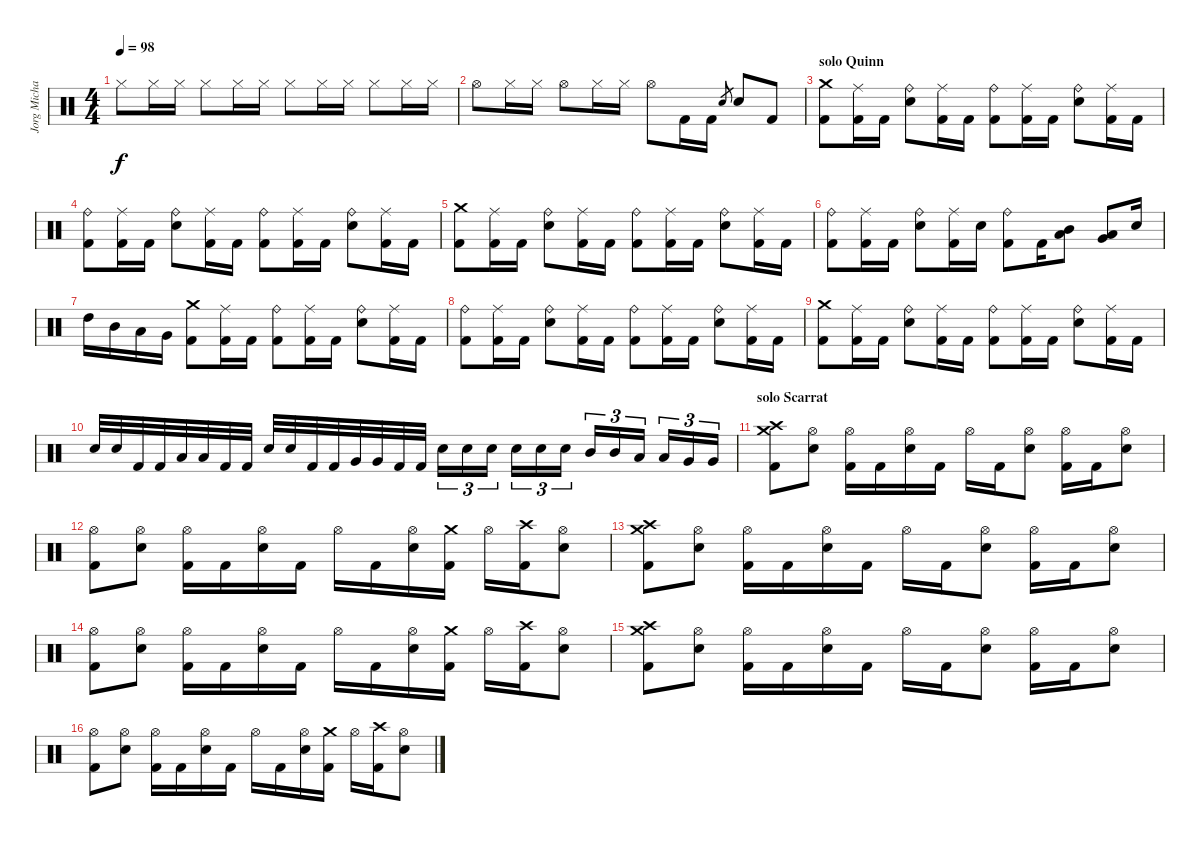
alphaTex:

\track ("Jorg Michael" "Jorg Micha") {instrument percussion}
\staff {score}
\articulation defaults
\ts (4 4)
\tempo 98
\clef neutral
\ks c "Hi-Hat (closed)".8{dy f} "Hi-Hat (closed)".16 "Hi-Hat (closed)".16 "Hi-Hat (closed)".8 "Hi-Hat (closed)".16 "Hi-Hat (closed)".16 "Hi-Hat (closed)".8 "Hi-Hat (closed)".16 "Hi-Hat (closed)".16 "Hi-Hat (closed)".8 "Hi-Hat (closed)".16 "Hi-Hat (closed)".16
|
"Hi-Hat (open)".8 "Hi-Hat (closed)".16 "Hi-Hat (closed)".16 "Hi-Hat (open)".8 "Hi-Hat (closed)".16 "Hi-Hat (closed)".16 "Hi-Hat (open)".8 "Kick (hit) 2".16 "Kick (hit) 2".16 "Electric Snare (hit)".8{gr} "Electric Snare (hit)".8 "Kick (hit) 2".8 |
\section ("" "solo Quinn")
("Crash medium (hit)" "Kick (hit) 2").8 ("Ride (middle)" "Kick (hit) 2").16 "Kick (hit) 2".16 ("Ride (bell)" "Electric Snare (hit)").8 ("Ride (middle)" "Kick (hit) 2").16 "Kick (hit) 2".16 ("Ride (bell)" "Kick (hit) 2").8 ("Ride (middle)" "Kick (hit) 2").16 "Kick (hit) 2".16 ("Ride (bell)" "Electric Snare (hit)").8 ("Ride (middle)" "Kick (hit) 2").16 "Kick (hit) 2".16 |
("Ride (bell)" "Kick (hit) 2").8 ("Ride (middle)" "Kick (hit) 2").16 "Kick (hit) 2".16 ("Ride (bell)" "Electric Snare (hit)").8 ("Ride (middle)" "Kick (hit) 2").16 "Kick (hit) 2".16 ("Ride (bell)" "Kick (hit) 2").8 ("Ride (middle)" "Kick (hit) 2").16 "Kick (hit) 2".16 ("Ride (bell)" "Electric Snare (hit)").8 ("Ride (middle)" "Kick (hit) 2").16 "Kick (hit) 2".16 |
("Crash medium (hit)" "Kick (hit) 2").8 ("Ride (middle)" "Kick (hit) 2").16 "Kick (hit) 2".16 ("Ride (bell)" "Electric Snare (hit)").8 ("Ride (middle)" "Kick (hit) 2").16 "Kick (hit) 2".16 ("Ride (bell)" "Kick (hit) 2").8 ("Ride (middle)" "Kick (hit) 2").16 "Kick (hit) 2".16 ("Ride (bell)" "Electric Snare (hit)").8 ("Ride (middle)" "Kick (hit) 2").16 "Kick (hit) 2".16 |
("Ride (bell)" "Kick (hit) 2").8 ("Ride (middle)" "Kick (hit) 2").16 "Kick (hit) 2".16 ("Ride (bell)" "Electric Snare (hit)").8 ("Ride (middle)" "Kick (hit) 2").16 "Electric Snare (hit)".16 ("Ride (bell)" "Kick (hit) 2").8 "Kick (hit) 2".16 ("Mid Tom (hit)" "Low Tom (hit)").8 ("Low Tom (hit)" "Very Low Tom (hit)").8 "Electric Snare (hit)".16 |
"High Tom (hit)".16 "Mid Tom (hit)".16 "Low Tom (hit)".16 "Very Low Tom (hit)".16 ("Crash medium (hit)" "Kick (hit) 2").8 ("Ride (middle)" "Kick (hit) 2").16 "Kick (hit) 2".16 ("Ride (bell)" "Kick (hit) 2").8 ("Ride (middle)" "Kick (hit) 2").16 "Kick (hit) 2".16 ("Ride (bell)" "Electric Snare (hit)").8 ("Ride (middle)" "Kick (hit) 2").16 "Kick (hit) 2".16 |
("Ride (bell)" "Kick (hit) 2").8 ("Ride (middle)" "Kick (hit) 2").16 "Kick (hit) 2".16 ("Ride (bell)" "Electric Snare (hit)").8 ("Ride (middle)" "Kick (hit) 2").16 "Kick (hit) 2".16 ("Ride (bell)" "Kick (hit) 2").8 ("Ride (middle)" "Kick (hit) 2").16 "Kick (hit) 2".16 ("Ride (bell)" "Electric Snare (hit)").8 ("Ride (middle)" "Kick (hit) 2").16 "Kick (hit) 2".16 |
("Crash medium (hit)" "Kick (hit) 2").8 ("Ride (middle)" "Kick (hit) 2").16 "Kick (hit) 2".16 ("Ride (bell)" "Electric Snare (hit)").8 ("Ride (middle)" "Kick (hit) 2").16 "Kick (hit) 2".16 ("Ride (bell)" "Kick (hit) 2").8 ("Ride (middle)" "Kick (hit) 2").16 "Kick (hit) 2".16 ("Ride (bell)" "Electric Snare (hit)").8 ("Ride (middle)" "Kick (hit) 2").16 "Kick (hit) 2".16 |
"Electric Snare (hit)".32 "Electric Snare (hit)".32 "Kick (hit) 2".32 "Kick (hit) 2".32 "Low Tom (hit)".32 "Low Tom (hit)".32 "Kick (hit) 2".32 "Kick (hit) 2".32 "Electric Snare (hit)".32 "Electric Snare (hit)".32 "Kick (hit) 2".32 "Kick (hit) 2".32 "Very Low Tom (hit)".32 "Very Low Tom (hit)".32 "Kick (hit) 2".32 "Kick (hit) 2".32 "Electric Snare (hit)".16{tu (3 2)} "Electric Snare (hit)".16{tu (3 2)} "Electric Snare (hit)".16{tu (3 2)} "Electric Snare (hit)".16{tu (3 2)} "Electric Snare (hit)".16{tu (3 2)} "Electric Snare (hit)".16{tu (3 2)} "Mid Tom (hit)".16{tu (3 2)} "Mid Tom (hit)".16{tu (3 2)} "Low Tom (hit)".16{tu (3 2)} "Low Tom (hit)".16{tu (3 2)} "Very Low Tom (hit)".16{tu (3 2)} "Very Low Tom (hit)".16{tu (3 2)} |
\section ("" "solo Scarrat")
("Crash medium (hit)" "Crash high (hit)" "Kick (hit) 2").8 ("Hi-Hat (open)" "Electric Snare (hit)").8 ("Hi-Hat (open)" "Kick (hit) 2").16 "Kick (hit) 2".16 ("Hi-Hat (open)" "Electric Snare (hit)").16 "Kick (hit) 2".16 "Hi-Hat (open)".16 "Kick (hit) 2".16 ("Hi-Hat (open)" "Electric Snare (hit)").8 ("Hi-Hat (open)" "Kick (hit) 2").16 "Kick (hit) 2".16 ("Hi-Hat (open)" "Electric Snare (hit)").8 |
("Hi-Hat (open)" "Kick (hit) 2").8 ("Hi-Hat (open)" "Electric Snare (hit)").8 ("Hi-Hat (open)" "Kick (hit) 2").16 "Kick (hit) 2".16 ("Hi-Hat (open)" "Electric Snare (hit)").16 "Kick (hit) 2".16 "Hi-Hat (open)".16 "Kick (hit) 2".16 ("Hi-Hat (open)" "Electric Snare (hit)").16 ("Crash medium (hit)" "Kick (hit) 2").16 "Hi-Hat (open)".16 ("Crash high (hit)" "Kick (hit) 2").16 ("Hi-Hat (open)" "Electric Snare (hit)").8 |
("Crash medium (hit)" "Crash high (hit)" "Kick (hit) 2").8 ("Hi-Hat (open)" "Electric Snare (hit)").8 ("Hi-Hat (open)" "Kick (hit) 2").16 "Kick (hit) 2".16 ("Hi-Hat (open)" "Electric Snare (hit)").16 "Kick (hit) 2".16 "Hi-Hat (open)".16 "Kick (hit) 2".16 ("Hi-Hat (open)" "Electric Snare (hit)").8 ("Hi-Hat (open)" "Kick (hit) 2").16 "Kick (hit) 2".16 ("Hi-Hat (open)" "Electric Snare (hit)").8 |
("Hi-Hat (open)" "Kick (hit) 2").8 ("Hi-Hat (open)" "Electric Snare (hit)").8 ("Hi-Hat (open)" "Kick (hit) 2").16 "Kick (hit) 2".16 ("Hi-Hat (open)" "Electric Snare (hit)").16 "Kick (hit) 2".16 "Hi-Hat (open)".16 "Kick (hit) 2".16 ("Hi-Hat (open)" "Electric Snare (hit)").16 ("Crash medium (hit)" "Kick (hit) 2").16 "Hi-Hat (open)".16 ("Crash high (hit)" "Kick (hit) 2").16 ("Hi-Hat (open)" "Electric Snare (hit)").8 |
("Crash medium (hit)" "Crash high (hit)" "Kick (hit) 2").8 ("Hi-Hat (open)" "Electric Snare (hit)").8 ("Hi-Hat (open)" "Kick (hit) 2").16 "Kick (hit) 2".16 ("Hi-Hat (open)" "Electric Snare (hit)").16 "Kick (hit) 2".16 "Hi-Hat (open)".16 "Kick (hit) 2".16 ("Hi-Hat (open)" "Electric Snare (hit)").8 ("Hi-Hat (open)" "Kick (hit) 2").16 "Kick (hit) 2".16 ("Hi-Hat (open)" "Electric Snare (hit)").8 |
("Hi-Hat (open)" "Kick (hit) 2").8 ("Hi-Hat (open)" "Electric Snare (hit)").8 ("Hi-Hat (open)" "Kick (hit) 2").16 "Kick (hit) 2".16 ("Hi-Hat (open)" "Electric Snare (hit)").16 "Kick (hit) 2".16 "Hi-Hat (open)".16 "Kick (hit) 2".16 ("Hi-Hat (open)" "Electric Snare (hit)").16 ("Crash medium (hit)" "Kick (hit) 2").16 "Hi-Hat (open)".16 ("Crash high (hit)" "Kick (hit) 2").16 ("Hi-Hat (open)" "Electric Snare (hit)").8
